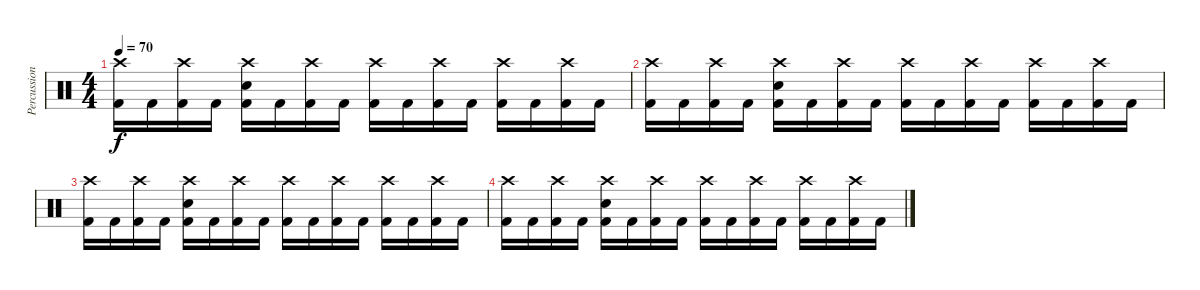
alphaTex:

\track ("Percussions" "Percussion") {instrument percussion}
\staff {score}
\articulation defaults
\ts (4 4)
\tempo 70
\clef neutral
\ks c
("Crash high (hit)" "Kick (hit) 2").16{dy f} "Kick (hit) 2".16 ("Crash high (hit)" "Kick (hit) 2").16 "Kick (hit) 2".16 ("Crash high (hit)" "Electric Snare (hit)" "Kick (hit) 2").16 "Kick (hit) 2".16 ("Crash high (hit)" "Kick (hit) 2").16 "Kick (hit) 2".16 ("Crash high (hit)" "Kick (hit) 2").16 "Kick (hit) 2".16 ("Crash high (hit)" "Kick (hit) 2").16 "Kick (hit) 2".16 ("Crash high (hit)" "Kick (hit) 2").16 "Kick (hit) 2".16 ("Crash high (hit)" "Kick (hit) 2").16 "Kick (hit) 2".16 |
("Crash high (hit)" "Kick (hit) 2").16 "Kick (hit) 2".16 ("Crash high (hit)" "Kick (hit) 2").16 "Kick (hit) 2".16 ("Crash high (hit)" "Electric Snare (hit)" "Kick (hit) 2").16 "Kick (hit) 2".16 ("Crash high (hit)" "Kick (hit) 2").16 "Kick (hit) 2".16 ("Crash high (hit)" "Kick (hit) 2").16 "Kick (hit) 2".16 ("Crash high (hit)" "Kick (hit) 2").16 "Kick (hit) 2".16 ("Crash high (hit)" "Kick (hit) 2").16 "Kick (hit) 2".16 ("Crash high (hit)" "Kick (hit) 2").16 "Kick (hit) 2".16 |
("Crash high (hit)" "Kick (hit) 2").16 "Kick (hit) 2".16 ("Crash high (hit)" "Kick (hit) 2").16 "Kick (hit) 2".16 ("Crash high (hit)" "Electric Snare (hit)" "Kick (hit) 2").16 "Kick (hit) 2".16 ("Crash high (hit)" "Kick (hit) 2").16 "Kick (hit) 2".16 ("Crash high (hit)" "Kick (hit) 2").16 "Kick (hit) 2".16 ("Crash high (hit)" "Kick (hit) 2").16 "Kick (hit) 2".16 ("Crash high (hit)" "Kick (hit) 2").16 "Kick (hit) 2".16 ("Crash high (hit)" "Kick (hit) 2").16 "Kick (hit) 2".16 |
("Crash high (hit)" "Kick (hit) 2").16 "Kick (hit) 2".16 ("Crash high (hit)" "Kick (hit) 2").16 "Kick (hit) 2".16 ("Crash high (hit)" "Electric Snare (hit)" "Kick (hit) 2").16 "Kick (hit) 2".16 ("Crash high (hit)" "Kick (hit) 2").16 "Kick (hit) 2".16 ("Crash high (hit)" "Kick (hit) 2").16 "Kick (hit) 2".16 ("Crash high (hit)" "Kick (hit) 2").16 "Kick (hit) 2".16 ("Crash high (hit)" "Kick (hit) 2").16 "Kick (hit) 2".16 ("Crash high (hit)" "Kick (hit) 2").16 "Kick (hit) 2".16
